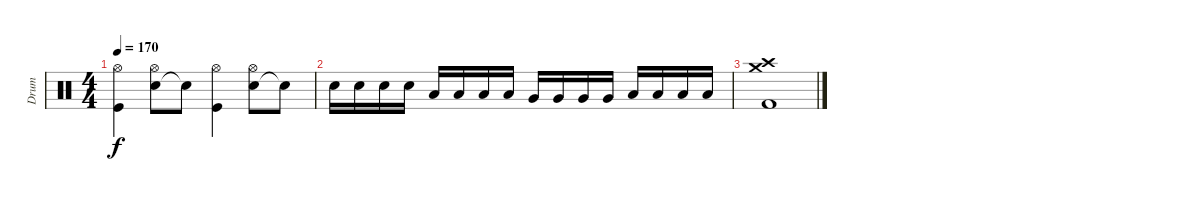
\track ("Drum" "Drum") {instrument percussion}
\staff {score}
\articulation defaults
\ts (4 4)
\tempo 170
\clef neutral
\ks c
("Hi-Hat (open)" "Kick (hit)").4{dy f} ("Snare (hit) 2" "Hi-Hat (open)").8 "Electric Snare (hit)"{t}.8 ("Hi-Hat (open)" "Kick (hit)").4 ("Snare (hit) 2" "Hi-Hat (open)").8 "Electric Snare (hit)"{t}.8 |
"Electric Snare (hit)".16 "Electric Snare (hit)".16 "Electric Snare (hit)".16 "Electric Snare (hit)".16 "Low Tom (hit)".16 "Low Tom (hit)".16 "Low Tom (hit)".16 "Low Tom (hit)".16 "Very Low Tom (hit)".16 "Very Low Tom (hit)".16 "Very Low Tom (hit)".16 "Very Low Tom (hit)".16 "Low Floor Tom (hit)".16 "Low Floor Tom (hit)".16 "Low Floor Tom (hit)".16 "Low Floor Tom (hit)".16 |
("Crash medium (hit)" "Crash high (hit)" "Kick (hit) 2").1
